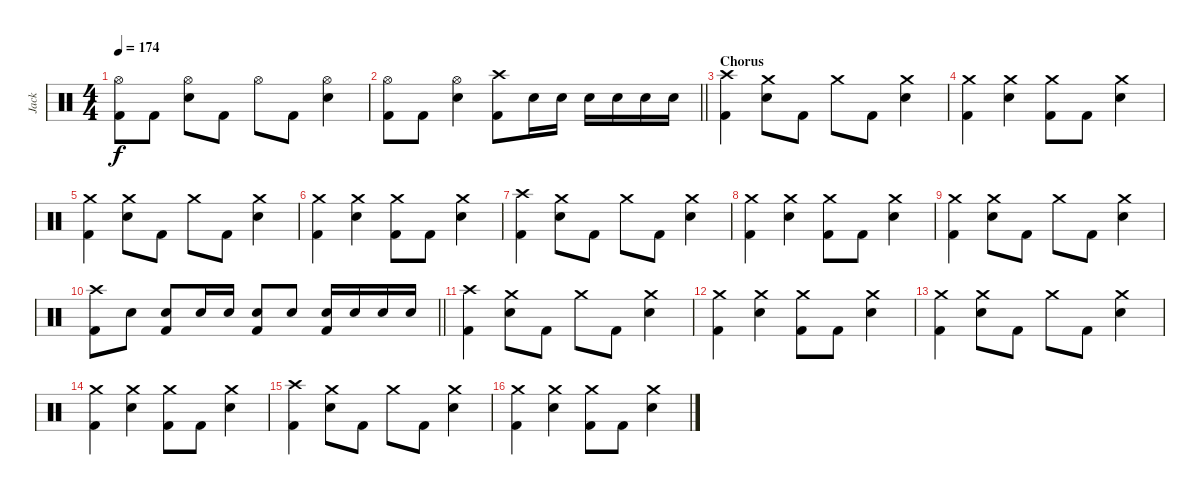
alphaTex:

\track ("Jack" "Jack") {instrument percussion}
\staff {score}
\articulation defaults
\ts (4 4)
\tempo 174
\clef neutral
\ks c
("Hi-Hat (open)" "Kick (hit) 2").8{dy f} "Kick (hit) 2".8 ("Hi-Hat (open)" "Electric Snare (hit)").8 "Kick (hit) 2".8 "Hi-Hat (open)".8 "Kick (hit) 2".8 ("Hi-Hat (open)" "Electric Snare (hit)").4 |
\barLineRight lightlight
("Hi-Hat (open)" "Kick (hit) 2").8 "Kick (hit) 2".8 ("Hi-Hat (open)" "Electric Snare (hit)").4 ("Crash high (hit)" "Kick (hit) 2").8 "Electric Snare (hit)".16 "Electric Snare (hit)".16 "Electric Snare (hit)".16 "Electric Snare (hit)".16 "Electric Snare (hit)".16 "Electric Snare (hit)".16 |
\section ("" "Chorus")
("Crash high (hit)" "Kick (hit) 2").4 ("Crash medium (hit)" "Electric Snare (hit)").8 "Kick (hit) 2".8 "Crash medium (hit)".8 "Kick (hit) 2".8 ("Crash medium (hit)" "Electric Snare (hit)").4 |
("Crash medium (hit)" "Kick (hit) 2").4 ("Crash medium (hit)" "Electric Snare (hit)").4 ("Crash medium (hit)" "Kick (hit) 2").8 "Kick (hit) 2".8 ("Crash medium (hit)" "Electric Snare (hit)").4 |
("Crash medium (hit)" "Kick (hit) 2").4 ("Crash medium (hit)" "Electric Snare (hit)").8 "Kick (hit) 2".8 "Crash medium (hit)".8 "Kick (hit) 2".8 ("Crash medium (hit)" "Electric Snare (hit)").4 |
("Crash medium (hit)" "Kick (hit) 2").4 ("Crash medium (hit)" "Electric Snare (hit)").4 ("Crash medium (hit)" "Kick (hit) 2").8 "Kick (hit) 2".8 ("Crash medium (hit)" "Electric Snare (hit)").4 |
("Crash high (hit)" "Kick (hit) 2").4 ("Crash medium (hit)" "Electric Snare (hit)").8 "Kick (hit) 2".8 "Crash medium (hit)".8 "Kick (hit) 2".8 ("Crash medium (hit)" "Electric Snare (hit)").4 |
("Crash medium (hit)" "Kick (hit) 2").4 ("Crash medium (hit)" "Electric Snare (hit)").4 ("Crash medium (hit)" "Kick (hit) 2").8 "Kick (hit) 2".8 ("Crash medium (hit)" "Electric Snare (hit)").4 |
("Crash medium (hit)" "Kick (hit) 2").4 ("Crash medium (hit)" "Electric Snare (hit)").8 "Kick (hit) 2".8 "Crash medium (hit)".8 "Kick (hit) 2".8 ("Crash medium (hit)" "Electric Snare (hit)").4 |
\barLineRight lightlight
("Crash high (hit)" "Kick (hit) 2").8 "Electric Snare (hit)".8 ("Electric Snare (hit)" "Kick (hit) 2").8 "Electric Snare (hit)".16 "Electric Snare (hit)".16 ("Electric Snare (hit)" "Kick (hit) 2").8 "Electric Snare (hit)".8 ("Electric Snare (hit)" "Kick (hit) 2").16 "Electric Snare (hit)".16 "Electric Snare (hit)".16 "Electric Snare (hit)".16 |
("Crash high (hit)" "Kick (hit) 2").4 ("Crash medium (hit)" "Electric Snare (hit)").8 "Kick (hit) 2".8 "Crash medium (hit)".8 "Kick (hit) 2".8 ("Crash medium (hit)" "Electric Snare (hit)").4 |
("Crash medium (hit)" "Kick (hit) 2").4 ("Crash medium (hit)" "Electric Snare (hit)").4 ("Crash medium (hit)" "Kick (hit) 2").8 "Kick (hit) 2".8 ("Crash medium (hit)" "Electric Snare (hit)").4 |
("Crash medium (hit)" "Kick (hit) 2").4 ("Crash medium (hit)" "Electric Snare (hit)").8 "Kick (hit) 2".8 "Crash medium (hit)".8 "Kick (hit) 2".8 ("Crash medium (hit)" "Electric Snare (hit)").4 |
("Crash medium (hit)" "Kick (hit) 2").4 ("Crash medium (hit)" "Electric Snare (hit)").4 ("Crash medium (hit)" "Kick (hit) 2").8 "Kick (hit) 2".8 ("Crash medium (hit)" "Electric Snare (hit)").4 |
("Crash high (hit)" "Kick (hit) 2").4 ("Crash medium (hit)" "Electric Snare (hit)").8 "Kick (hit) 2".8 "Crash medium (hit)".8 "Kick (hit) 2".8 ("Crash medium (hit)" "Electric Snare (hit)").4 |
("Crash medium (hit)" "Kick (hit) 2").4 ("Crash medium (hit)" "Electric Snare (hit)").4 ("Crash medium (hit)" "Kick (hit) 2").8 "Kick (hit) 2".8 ("Crash medium (hit)" "Electric Snare (hit)").4
